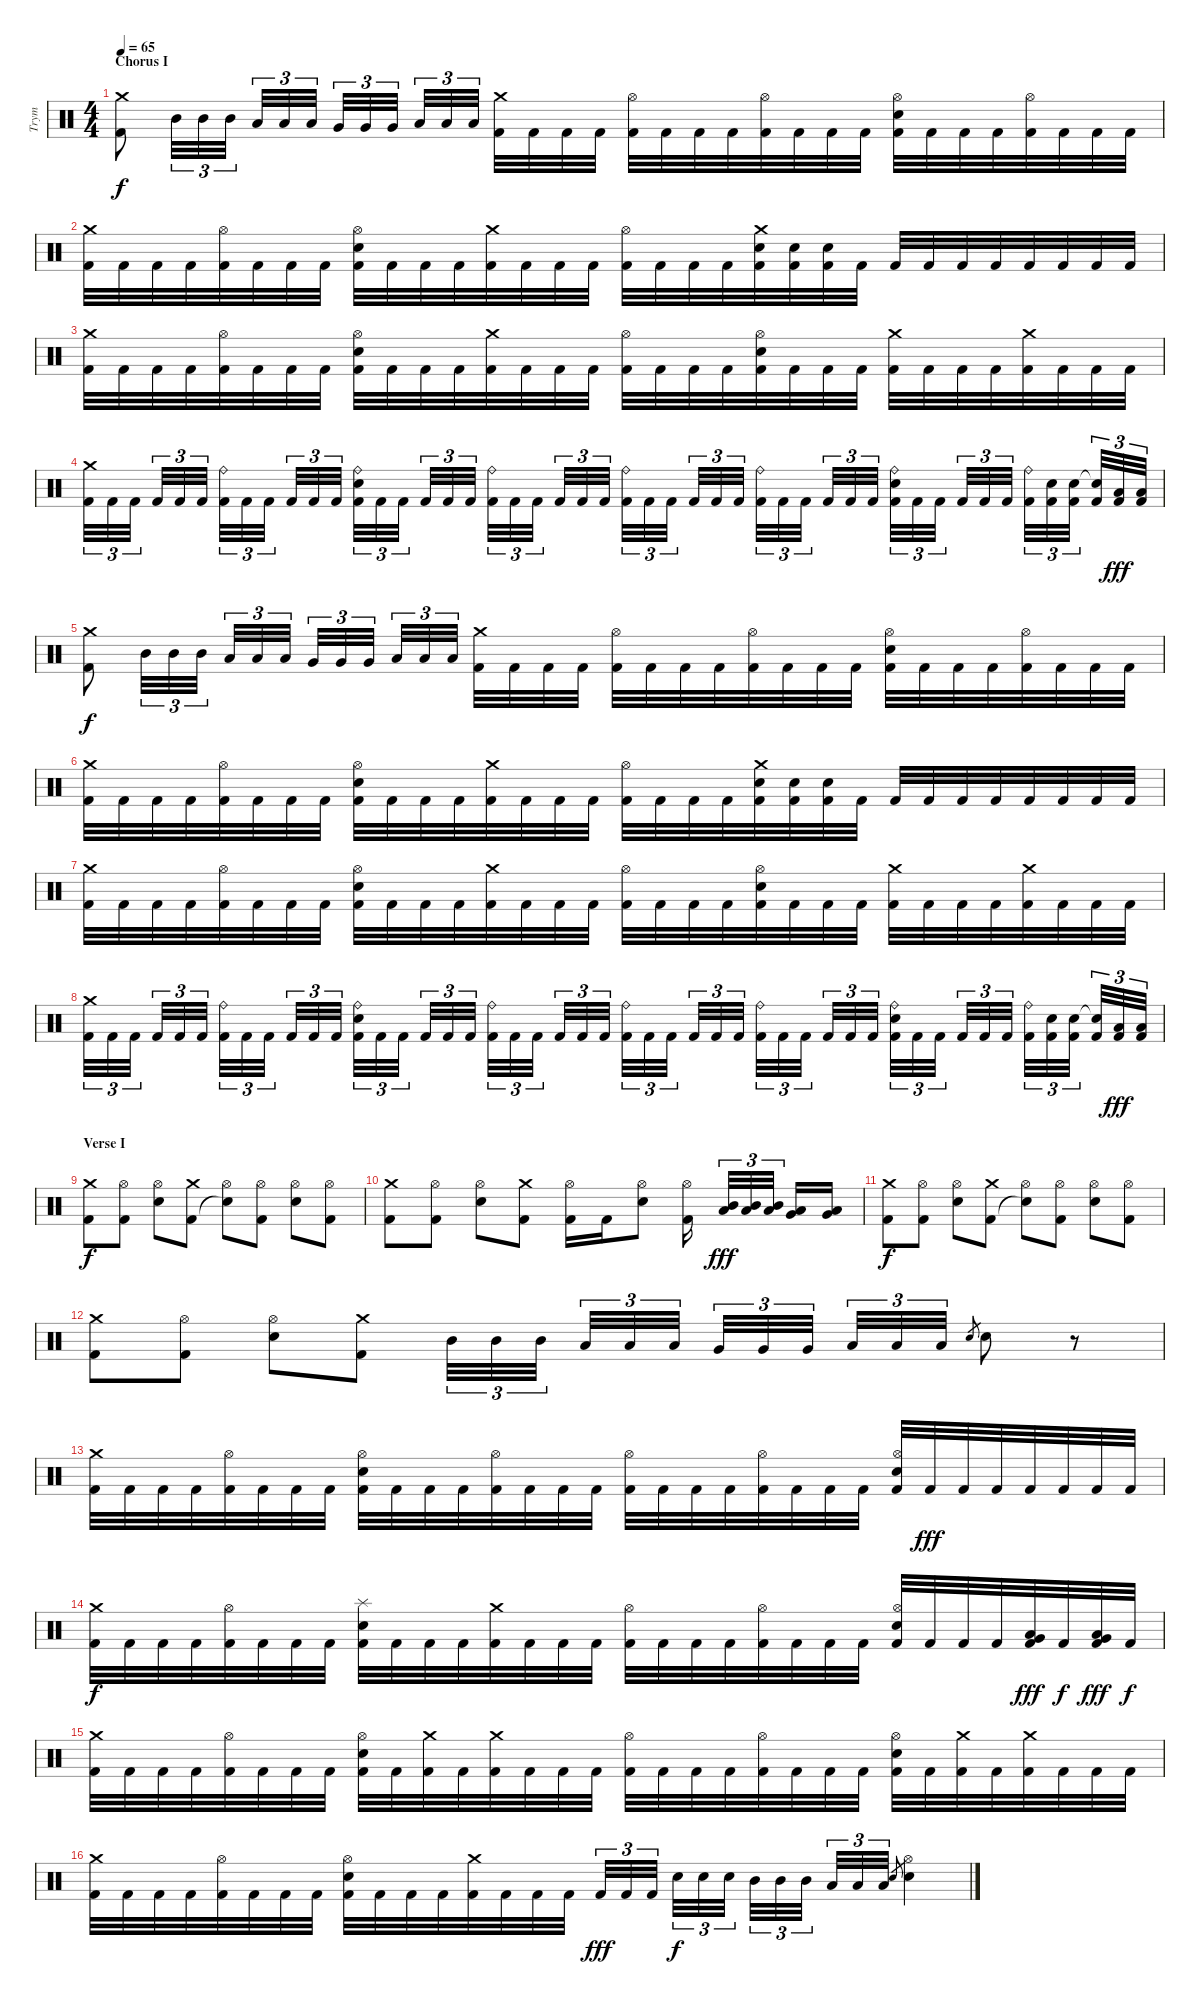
\track ("Trym" "Trym") {instrument percussion}
\staff {score}
\articulation defaults
\ts (4 4)
\section ("" "Chorus I")
\tempo 65
\clef neutral
\ks c
("Crash medium (hit)" "Kick (hit) 2").8{dy f} "Mid Tom (hit)".32{tu (3 2)} "Mid Tom (hit)".32{tu (3 2)} "Mid Tom (hit)".32{tu (3 2)} "Low Tom (hit)".32{tu (3 2)} "Low Tom (hit)".32{tu (3 2)} "Low Tom (hit)".32{tu (3 2)} "Very Low Tom (hit)".32{tu (3 2)} "Very Low Tom (hit)".32{tu (3 2)} "Very Low Tom (hit)".32{tu (3 2)} "Low Floor Tom (hit)".32{tu (3 2)} "Low Floor Tom (hit)".32{tu (3 2)} "Low Floor Tom (hit)".32{tu (3 2)} ("Crash medium (hit)" "Kick (hit) 2").32 "Kick (hit) 2".32 "Kick (hit) 2".32 "Kick (hit) 2".32 ("Hi-Hat (open)" "Kick (hit) 2").32 "Kick (hit) 2".32 "Kick (hit) 2".32 "Kick (hit) 2".32 ("Hi-Hat (open)" "Kick (hit) 2").32 "Kick (hit) 2".32 "Kick (hit) 2".32 "Kick (hit) 2".32 ("Hi-Hat (open)" "Electric Snare (hit)" "Kick (hit) 2").32 "Kick (hit) 2".32 "Kick (hit) 2".32 "Kick (hit) 2".32 ("Hi-Hat (open)" "Kick (hit) 2").32 "Kick (hit) 2".32 "Kick (hit) 2".32 "Kick (hit) 2".32 |
("Crash medium (hit)" "Kick (hit) 2").32 "Kick (hit) 2".32 "Kick (hit) 2".32 "Kick (hit) 2".32 ("Hi-Hat (open)" "Kick (hit) 2").32 "Kick (hit) 2".32 "Kick (hit) 2".32 "Kick (hit) 2".32 ("Hi-Hat (open)" "Electric Snare (hit)" "Kick (hit) 2").32 "Kick (hit) 2".32 "Kick (hit) 2".32 "Kick (hit) 2".32 ("Crash medium (hit)" "Kick (hit) 2").32 "Kick (hit) 2".32 "Kick (hit) 2".32 "Kick (hit) 2".32 ("Hi-Hat (open)" "Kick (hit) 2").32 "Kick (hit) 2".32 "Kick (hit) 2".32 "Kick (hit) 2".32 ("Crash medium (hit)" "Electric Snare (hit)" "Kick (hit) 2").32 ("Electric Snare (hit)" "Kick (hit) 2").32 ("Electric Snare (hit)" "Kick (hit) 2").32 "Kick (hit) 2".32 "Kick (hit) 2".32 "Kick (hit) 2".32 "Kick (hit) 2".32 "Kick (hit) 2".32 "Kick (hit) 2".32 "Kick (hit) 2".32 "Kick (hit) 2".32 "Kick (hit) 2".32 |
("Crash medium (hit)" "Kick (hit) 2").32 "Kick (hit) 2".32 "Kick (hit) 2".32 "Kick (hit) 2".32 ("Hi-Hat (open)" "Kick (hit) 2").32 "Kick (hit) 2".32 "Kick (hit) 2".32 "Kick (hit) 2".32 ("Hi-Hat (open)" "Electric Snare (hit)" "Kick (hit) 2").32 "Kick (hit) 2".32 "Kick (hit) 2".32 "Kick (hit) 2".32 ("Crash medium (hit)" "Kick (hit) 2").32 "Kick (hit) 2".32 "Kick (hit) 2".32 "Kick (hit) 2".32 ("Hi-Hat (open)" "Kick (hit) 2").32 "Kick (hit) 2".32 "Kick (hit) 2".32 "Kick (hit) 2".32 ("Hi-Hat (open)" "Electric Snare (hit)" "Kick (hit) 2").32 "Kick (hit) 2".32 "Kick (hit) 2".32 "Kick (hit) 2".32 ("Crash medium (hit)" "Kick (hit) 2").32 "Kick (hit) 2".32 "Kick (hit) 2".32 "Kick (hit) 2".32 ("Crash medium (hit)" "Kick (hit) 2").32 "Kick (hit) 2".32 "Kick (hit) 2".32 "Kick (hit) 2".32 |
("Crash medium (hit)" "Kick (hit) 2").32{tu (3 2)} "Kick (hit) 2".32{tu (3 2)} "Kick (hit) 2".32{tu (3 2)} "Kick (hit) 2".32{tu (3 2)} "Kick (hit) 2".32{tu (3 2)} "Kick (hit) 2".32{tu (3 2)} ("Ride (bell)" "Kick (hit) 2").32{tu (3 2)} "Kick (hit) 2".32{tu (3 2)} "Kick (hit) 2".32{tu (3 2)} "Kick (hit) 2".32{tu (3 2)} "Kick (hit) 2".32{tu (3 2)} "Kick (hit) 2".32{tu (3 2)} ("Ride (bell)" "Electric Snare (hit)" "Kick (hit) 2").32{tu (3 2)} "Kick (hit) 2".32{tu (3 2)} "Kick (hit) 2".32{tu (3 2)} "Kick (hit) 2".32{tu (3 2)} "Kick (hit) 2".32{tu (3 2)} "Kick (hit) 2".32{tu (3 2)} ("Ride (bell)" "Kick (hit) 2").32{tu (3 2)} "Kick (hit) 2".32{tu (3 2)} "Kick (hit) 2".32{tu (3 2)} "Kick (hit) 2".32{tu (3 2)} "Kick (hit) 2".32{tu (3 2)} "Kick (hit) 2".32{tu (3 2)} ("Ride (bell)" "Kick (hit) 2").32{tu (3 2)} "Kick (hit) 2".32{tu (3 2)} "Kick (hit) 2".32{tu (3 2)} "Kick (hit) 2".32{tu (3 2)} "Kick (hit) 2".32{tu (3 2)} "Kick (hit) 2".32{tu (3 2)} ("Ride (bell)" "Kick (hit) 2").32{tu (3 2)} "Kick (hit) 2".32{tu (3 2)} "Kick (hit) 2".32{tu (3 2)} "Kick (hit) 2".32{tu (3 2)} "Kick (hit) 2".32{tu (3 2)} "Kick (hit) 2".32{tu (3 2)} ("Ride (bell)" "Electric Snare (hit)" "Kick (hit) 2").32{tu (3 2)} "Kick (hit) 2".32{tu (3 2)} "Kick (hit) 2".32{tu (3 2)} "Kick (hit) 2".32{tu (3 2)} "Kick (hit) 2".32{tu (3 2)} "Kick (hit) 2".32{tu (3 2)} ("Ride (bell)" "Kick (hit) 2").32{tu (3 2)} ("Electric Snare (hit)" "Kick (hit) 2").32{tu (3 2)} ("Electric Snare (hit)" "Kick (hit) 2").32{tu (3 2)} ("Electric Snare (hit)"{t} "Kick (hit) 2").32{tu (3 2)} ("Low Tom (hit)" "Kick (hit) 2").32{tu (3 2) dy fff} ("Low Tom (hit)" "Kick (hit) 2").32{tu (3 2)} |
("Crash medium (hit)" "Kick (hit) 2").8{dy f} "Mid Tom (hit)".32{tu (3 2)} "Mid Tom (hit)".32{tu (3 2)} "Mid Tom (hit)".32{tu (3 2)} "Low Tom (hit)".32{tu (3 2)} "Low Tom (hit)".32{tu (3 2)} "Low Tom (hit)".32{tu (3 2)} "Very Low Tom (hit)".32{tu (3 2)} "Very Low Tom (hit)".32{tu (3 2)} "Very Low Tom (hit)".32{tu (3 2)} "Low Floor Tom (hit)".32{tu (3 2)} "Low Floor Tom (hit)".32{tu (3 2)} "Low Floor Tom (hit)".32{tu (3 2)} ("Crash medium (hit)" "Kick (hit) 2").32 "Kick (hit) 2".32 "Kick (hit) 2".32 "Kick (hit) 2".32 ("Hi-Hat (open)" "Kick (hit) 2").32 "Kick (hit) 2".32 "Kick (hit) 2".32 "Kick (hit) 2".32 ("Hi-Hat (open)" "Kick (hit) 2").32 "Kick (hit) 2".32 "Kick (hit) 2".32 "Kick (hit) 2".32 ("Hi-Hat (open)" "Electric Snare (hit)" "Kick (hit) 2").32 "Kick (hit) 2".32 "Kick (hit) 2".32 "Kick (hit) 2".32 ("Hi-Hat (open)" "Kick (hit) 2").32 "Kick (hit) 2".32 "Kick (hit) 2".32 "Kick (hit) 2".32 |
("Crash medium (hit)" "Kick (hit) 2").32 "Kick (hit) 2".32 "Kick (hit) 2".32 "Kick (hit) 2".32 ("Hi-Hat (open)" "Kick (hit) 2").32 "Kick (hit) 2".32 "Kick (hit) 2".32 "Kick (hit) 2".32 ("Hi-Hat (open)" "Electric Snare (hit)" "Kick (hit) 2").32 "Kick (hit) 2".32 "Kick (hit) 2".32 "Kick (hit) 2".32 ("Crash medium (hit)" "Kick (hit) 2").32 "Kick (hit) 2".32 "Kick (hit) 2".32 "Kick (hit) 2".32 ("Hi-Hat (open)" "Kick (hit) 2").32 "Kick (hit) 2".32 "Kick (hit) 2".32 "Kick (hit) 2".32 ("Crash medium (hit)" "Electric Snare (hit)" "Kick (hit) 2").32 ("Electric Snare (hit)" "Kick (hit) 2").32 ("Electric Snare (hit)" "Kick (hit) 2").32 "Kick (hit) 2".32 "Kick (hit) 2".32 "Kick (hit) 2".32 "Kick (hit) 2".32 "Kick (hit) 2".32 "Kick (hit) 2".32 "Kick (hit) 2".32 "Kick (hit) 2".32 "Kick (hit) 2".32 |
("Crash medium (hit)" "Kick (hit) 2").32 "Kick (hit) 2".32 "Kick (hit) 2".32 "Kick (hit) 2".32 ("Hi-Hat (open)" "Kick (hit) 2").32 "Kick (hit) 2".32 "Kick (hit) 2".32 "Kick (hit) 2".32 ("Hi-Hat (open)" "Electric Snare (hit)" "Kick (hit) 2").32 "Kick (hit) 2".32 "Kick (hit) 2".32 "Kick (hit) 2".32 ("Crash medium (hit)" "Kick (hit) 2").32 "Kick (hit) 2".32 "Kick (hit) 2".32 "Kick (hit) 2".32 ("Hi-Hat (open)" "Kick (hit) 2").32 "Kick (hit) 2".32 "Kick (hit) 2".32 "Kick (hit) 2".32 ("Hi-Hat (open)" "Electric Snare (hit)" "Kick (hit) 2").32 "Kick (hit) 2".32 "Kick (hit) 2".32 "Kick (hit) 2".32 ("Crash medium (hit)" "Kick (hit) 2").32 "Kick (hit) 2".32 "Kick (hit) 2".32 "Kick (hit) 2".32 ("Crash medium (hit)" "Kick (hit) 2").32 "Kick (hit) 2".32 "Kick (hit) 2".32 "Kick (hit) 2".32 |
("Crash medium (hit)" "Kick (hit) 2").32{tu (3 2)} "Kick (hit) 2".32{tu (3 2)} "Kick (hit) 2".32{tu (3 2)} "Kick (hit) 2".32{tu (3 2)} "Kick (hit) 2".32{tu (3 2)} "Kick (hit) 2".32{tu (3 2)} ("Ride (bell)" "Kick (hit) 2").32{tu (3 2)} "Kick (hit) 2".32{tu (3 2)} "Kick (hit) 2".32{tu (3 2)} "Kick (hit) 2".32{tu (3 2)} "Kick (hit) 2".32{tu (3 2)} "Kick (hit) 2".32{tu (3 2)} ("Ride (bell)" "Electric Snare (hit)" "Kick (hit) 2").32{tu (3 2)} "Kick (hit) 2".32{tu (3 2)} "Kick (hit) 2".32{tu (3 2)} "Kick (hit) 2".32{tu (3 2)} "Kick (hit) 2".32{tu (3 2)} "Kick (hit) 2".32{tu (3 2)} ("Ride (bell)" "Kick (hit) 2").32{tu (3 2)} "Kick (hit) 2".32{tu (3 2)} "Kick (hit) 2".32{tu (3 2)} "Kick (hit) 2".32{tu (3 2)} "Kick (hit) 2".32{tu (3 2)} "Kick (hit) 2".32{tu (3 2)} ("Ride (bell)" "Kick (hit) 2").32{tu (3 2)} "Kick (hit) 2".32{tu (3 2)} "Kick (hit) 2".32{tu (3 2)} "Kick (hit) 2".32{tu (3 2)} "Kick (hit) 2".32{tu (3 2)} "Kick (hit) 2".32{tu (3 2)} ("Ride (bell)" "Kick (hit) 2").32{tu (3 2)} "Kick (hit) 2".32{tu (3 2)} "Kick (hit) 2".32{tu (3 2)} "Kick (hit) 2".32{tu (3 2)} "Kick (hit) 2".32{tu (3 2)} "Kick (hit) 2".32{tu (3 2)} ("Ride (bell)" "Electric Snare (hit)" "Kick (hit) 2").32{tu (3 2)} "Kick (hit) 2".32{tu (3 2)} "Kick (hit) 2".32{tu (3 2)} "Kick (hit) 2".32{tu (3 2)} "Kick (hit) 2".32{tu (3 2)} "Kick (hit) 2".32{tu (3 2)} ("Ride (bell)" "Kick (hit) 2").32{tu (3 2)} ("Electric Snare (hit)" "Kick (hit) 2").32{tu (3 2)} ("Electric Snare (hit)" "Kick (hit) 2").32{tu (3 2)} ("Electric Snare (hit)"{t} "Kick (hit) 2").32{tu (3 2)} ("Low Tom (hit)" "Kick (hit) 2").32{tu (3 2) dy fff} ("Low Tom (hit)" "Kick (hit) 2").32{tu (3 2)} |
\section ("" "Verse I")
("Crash medium (hit)" "Kick (hit) 2").8{dy f} ("Hi-Hat (open)" "Kick (hit) 2").8 ("Hi-Hat (open)" "Electric Snare (hit)").8 ("Crash medium (hit)" "Kick (hit) 2").8 ("Hi-Hat (open)" "Snare (hit)"{t}).8 ("Hi-Hat (open)" "Kick (hit) 2").8 ("Hi-Hat (open)" "Electric Snare (hit)").8 ("Hi-Hat (open)" "Kick (hit) 2").8 |
("Crash medium (hit)" "Kick (hit) 2").8 ("Hi-Hat (open)" "Kick (hit) 2").8 ("Hi-Hat (open)" "Electric Snare (hit)").8 ("Crash medium (hit)" "Kick (hit) 2").8 ("Hi-Hat (open)" "Kick (hit) 2").16 "Kick (hit) 2".16 ("Hi-Hat (open)" "Electric Snare (hit)").8 ("Hi-Hat (open)" "Kick (hit) 2").16 ("Low Tom (hit)" "Mid Tom (hit)").32{tu (3 2) dy fff} ("Low Tom (hit)" "Mid Tom (hit)").32{tu (3 2)} ("Low Tom (hit)" "Mid Tom (hit)").32{tu (3 2)} ("Very Low Tom (hit)" "Low Tom (hit)").16 ("Very Low Tom (hit)" "Low Tom (hit)").16 |
("Crash medium (hit)" "Kick (hit) 2").8{dy f} ("Hi-Hat (open)" "Kick (hit) 2").8 ("Hi-Hat (open)" "Electric Snare (hit)").8 ("Crash medium (hit)" "Kick (hit) 2").8 ("Hi-Hat (open)" "Snare (hit)"{t}).8 ("Hi-Hat (open)" "Kick (hit) 2").8 ("Hi-Hat (open)" "Electric Snare (hit)").8 ("Hi-Hat (open)" "Kick (hit) 2").8 |
("Crash medium (hit)" "Kick (hit) 2").8 ("Hi-Hat (open)" "Kick (hit) 2").8 ("Hi-Hat (open)" "Electric Snare (hit)").8 ("Crash medium (hit)" "Kick (hit) 2").8 "Mid Tom (hit)".32{tu (3 2)} "Mid Tom (hit)".32{tu (3 2)} "Mid Tom (hit)".32{tu (3 2)} "Low Tom (hit)".32{tu (3 2)} "Low Tom (hit)".32{tu (3 2)} "Low Tom (hit)".32{tu (3 2)} "Very Low Tom (hit)".32{tu (3 2)} "Very Low Tom (hit)".32{tu (3 2)} "Very Low Tom (hit)".32{tu (3 2)} "Low Floor Tom (hit)".32{tu (3 2)} "Low Floor Tom (hit)".32{tu (3 2)} "Low Floor Tom (hit)".32{tu (3 2)} "Snare (hit) 2".8{gr} "Snare (hit) 2".8 r.8 |
("Crash medium (hit)" "Kick (hit) 2").32 "Kick (hit) 2".32 "Kick (hit) 2".32 "Kick (hit) 2".32 ("Hi-Hat (open)" "Kick (hit) 2").32 "Kick (hit) 2".32 "Kick (hit) 2".32 "Kick (hit) 2".32 ("Hi-Hat (open)" "Electric Snare (hit)" "Kick (hit) 2").32 "Kick (hit) 2".32 "Kick (hit) 2".32 "Kick (hit) 2".32 ("Hi-Hat (open)" "Kick (hit) 2").32 "Kick (hit) 2".32 "Kick (hit) 2".32 "Kick (hit) 2".32 ("Hi-Hat (open)" "Kick (hit) 2").32 "Kick (hit) 2".32 "Kick (hit) 2".32 "Kick (hit) 2".32 ("Hi-Hat (open)" "Kick (hit) 2").32 "Kick (hit) 2".32 "Kick (hit) 2".32 "Kick (hit) 2".32 ("Hi-Hat (open)" "Electric Snare (hit)" "Kick (hit) 2").32 "Kick (hit) 2".32{dy fff} "Kick (hit) 2".32 "Kick (hit) 2".32 "Kick (hit) 2".32 "Kick (hit) 2".32 "Kick (hit) 2".32 "Kick (hit) 2".32 |
("Crash medium (hit)" "Kick (hit) 2").32{dy f} "Kick (hit) 2".32 "Kick (hit) 2".32 "Kick (hit) 2".32 ("Hi-Hat (open)" "Kick (hit) 2").32 "Kick (hit) 2".32 "Kick (hit) 2".32 "Kick (hit) 2".32 ("Splash (hit)" "Electric Snare (hit)" "Kick (hit) 2").32 "Kick (hit) 2".32 "Kick (hit) 2".32 "Kick (hit) 2".32 ("Crash medium (hit)" "Kick (hit) 2").32 "Kick (hit) 2".32 "Kick (hit) 2".32 "Kick (hit) 2".32 ("Hi-Hat (open)" "Kick (hit) 2").32 "Kick (hit) 2".32 "Kick (hit) 2".32 "Kick (hit) 2".32 ("Hi-Hat (open)" "Kick (hit) 2").32 "Kick (hit) 2".32 "Kick (hit) 2".32 "Kick (hit) 2".32 ("Hi-Hat (open)" "Electric Snare (hit)" "Kick (hit) 2").32 "Kick (hit) 2".32 "Kick (hit) 2".32 "Kick (hit) 2".32 ("Very Low Tom (hit)" "Low Tom (hit)" "Kick (hit) 2").32{dy fff} "Kick (hit) 2".32{dy f} ("Very Low Tom (hit)" "Low Tom (hit)" "Kick (hit) 2").32{dy fff} "Kick (hit) 2".32{dy f} |
("Crash medium (hit)" "Kick (hit) 2").32 "Kick (hit) 2".32 "Kick (hit) 2".32 "Kick (hit) 2".32 ("Hi-Hat (open)" "Kick (hit) 2").32 "Kick (hit) 2".32 "Kick (hit) 2".32 "Kick (hit) 2".32 ("Hi-Hat (open)" "Electric Snare (hit)" "Kick (hit) 2").32 "Kick (hit) 2".32 ("Crash medium (hit)" "Kick (hit) 2").32 "Kick (hit) 2".32 ("Crash medium (hit)" "Kick (hit) 2").32 "Kick (hit) 2".32 "Kick (hit) 2".32 "Kick (hit) 2".32 ("Hi-Hat (open)" "Kick (hit) 2").32 "Kick (hit) 2".32 "Kick (hit) 2".32 "Kick (hit) 2".32 ("Hi-Hat (open)" "Kick (hit) 2").32 "Kick (hit) 2".32 "Kick (hit) 2".32 "Kick (hit) 2".32 ("Hi-Hat (open)" "Electric Snare (hit)" "Kick (hit) 2").32 "Kick (hit) 2".32 ("Crash medium (hit)" "Kick (hit) 2").32 "Kick (hit) 2".32 ("Crash medium (hit)" "Kick (hit) 2").32 "Kick (hit) 2".32 "Kick (hit) 2".32 "Kick (hit) 2".32 |
("Crash medium (hit)" "Kick (hit) 2").32 "Kick (hit) 2".32 "Kick (hit) 2".32 "Kick (hit) 2".32 ("Hi-Hat (open)" "Kick (hit) 2").32 "Kick (hit) 2".32 "Kick (hit) 2".32 "Kick (hit) 2".32 ("Hi-Hat (open)" "Electric Snare (hit)" "Kick (hit) 2").32 "Kick (hit) 2".32 "Kick (hit) 2".32 "Kick (hit) 2".32 ("Crash medium (hit)" "Kick (hit) 2").32 "Kick (hit) 2".32 "Kick (hit) 2".32 "Kick (hit) 2".32 "Kick (hit) 2".32{tu (3 2) dy fff} "Kick (hit) 2".32{tu (3 2)} "Kick (hit) 2".32{tu (3 2)} "Snare (hit) 2".32{tu (3 2) dy f} "Snare (hit) 2".32{tu (3 2)} "Snare (hit) 2".32{tu (3 2)} "Mid Tom (hit)".32{tu (3 2)} "Mid Tom (hit)".32{tu (3 2)} "Mid Tom (hit)".32{tu (3 2)} "Low Tom (hit)".32{tu (3 2)} "Low Tom (hit)".32{tu (3 2)} "Low Tom (hit)".32{tu (3 2)} "Snare (hit) 2".8{gr} ("Hi-Hat (open)" "Snare (hit) 2").4
